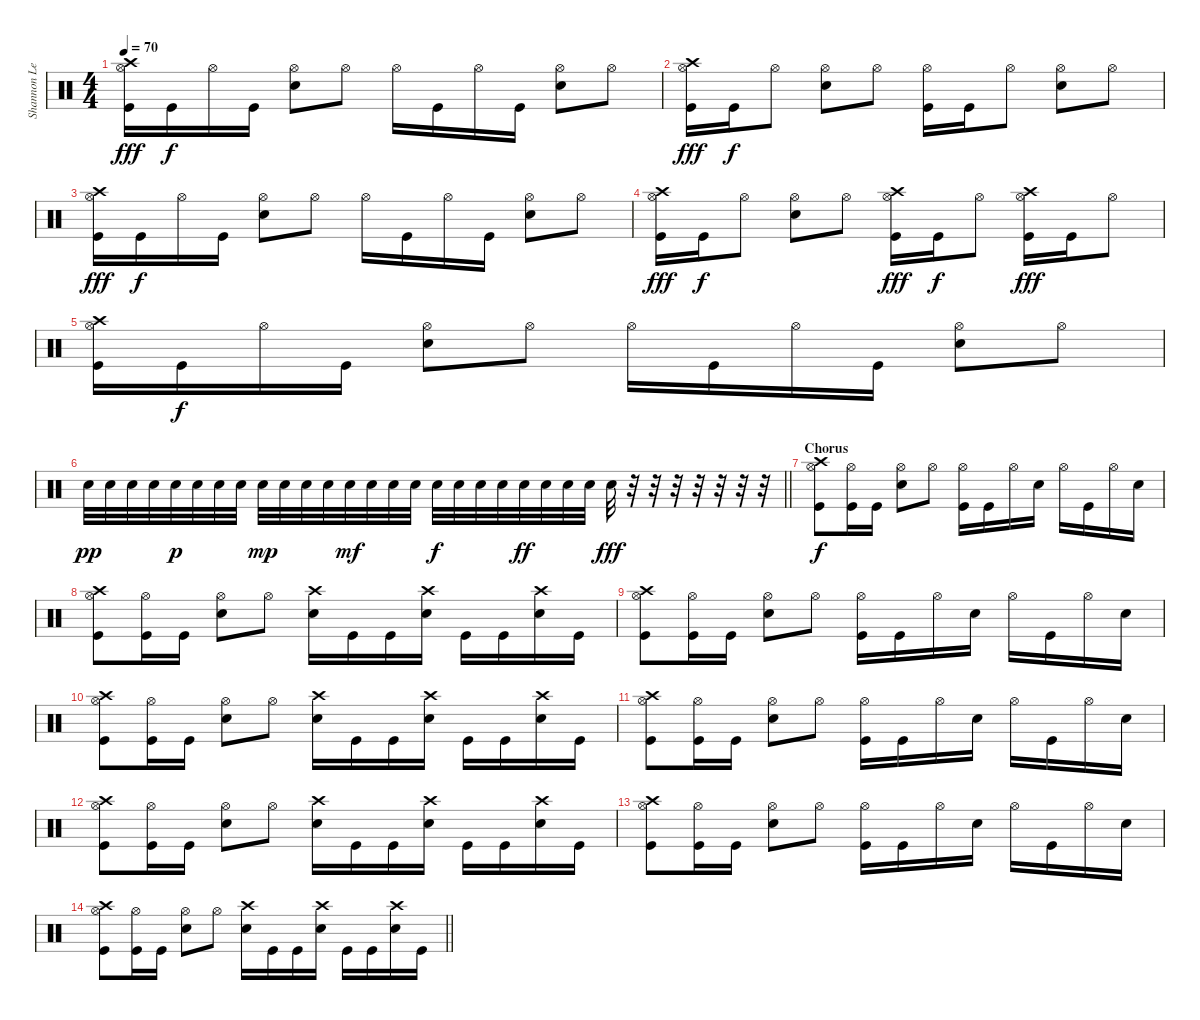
\track ("Shannon Leto (Drums)" "Shannon Le") {instrument percussion}
\staff {score}
\articulation defaults
\ts (4 4)
\tempo 70
\clef neutral
\ks c
("Crash high (hit)" "Hi-Hat (open)" "Kick (hit)").16{dy fff} "Kick (hit)".16{dy f} "Hi-Hat (open)".16 "Kick (hit)".16 ("Hi-Hat (open)" "Snare (hit) 2").8 "Hi-Hat (open)".8 "Hi-Hat (open)".16 "Kick (hit)".16 "Hi-Hat (open)".16 "Kick (hit)".16 ("Hi-Hat (open)" "Snare (hit) 2").8 "Hi-Hat (open)".8 |
("Crash high (hit)" "Hi-Hat (open)" "Kick (hit)").16{dy fff} "Kick (hit)".16{dy f} "Hi-Hat (open)".8 ("Hi-Hat (open)" "Snare (hit) 2").8 "Hi-Hat (open)".8 ("Hi-Hat (open)" "Kick (hit)").16 "Kick (hit)".16 "Hi-Hat (open)".8 ("Hi-Hat (open)" "Snare (hit) 2").8 "Hi-Hat (open)".8 |
("Crash high (hit)" "Hi-Hat (open)" "Kick (hit)").16{dy fff} "Kick (hit)".16{dy f} "Hi-Hat (open)".16 "Kick (hit)".16 ("Hi-Hat (open)" "Snare (hit) 2").8 "Hi-Hat (open)".8 "Hi-Hat (open)".16 "Kick (hit)".16 "Hi-Hat (open)".16 "Kick (hit)".16 ("Hi-Hat (open)" "Snare (hit) 2").8 "Hi-Hat (open)".8 |
("Crash high (hit)" "Hi-Hat (open)" "Kick (hit)").16{dy fff} "Kick (hit)".16{dy f} "Hi-Hat (open)".8 ("Hi-Hat (open)" "Snare (hit) 2").8 "Hi-Hat (open)".8 ("Crash high (hit)" "Hi-Hat (open)" "Kick (hit)").16{dy fff} "Kick (hit)".16{dy f} "Hi-Hat (open)".8 ("Crash high (hit)" "Hi-Hat (open)" "Kick (hit)").16{dy fff} "Kick (hit)".16 "Hi-Hat (open)".8 |
("Crash high (hit)" "Hi-Hat (open)" "Kick (hit)").16 "Kick (hit)".16{dy f} "Hi-Hat (open)".16 "Kick (hit)".16 ("Hi-Hat (open)" "Snare (hit) 2").8 "Hi-Hat (open)".8 "Hi-Hat (open)".16 "Kick (hit)".16 "Hi-Hat (open)".16 "Kick (hit)".16 ("Hi-Hat (open)" "Snare (hit) 2").8 "Hi-Hat (open)".8 |
\barLineRight lightlight "Snare (hit) 2".32{dy pp} "Snare (hit) 2".32 "Snare (hit) 2".32 "Snare (hit) 2".32 "Snare (hit) 2".32{dy p} "Snare (hit) 2".32 "Snare (hit) 2".32 "Snare (hit) 2".32 "Snare (hit) 2".32{dy mp} "Snare (hit) 2".32 "Snare (hit) 2".32 "Snare (hit) 2".32 "Snare (hit) 2".32{dy mf} "Snare (hit) 2".32 "Snare (hit) 2".32 "Snare (hit) 2".32 "Snare (hit) 2".32{dy f} "Snare (hit) 2".32 "Snare (hit) 2".32 "Snare (hit) 2".32 "Snare (hit) 2".32{dy ff} "Snare (hit) 2".32 "Snare (hit) 2".32 "Snare (hit) 2".32 "Snare (hit) 2".32{dy fff}
r.32 r.32 r.32 r.32 r.32 r.32 r.32 |
\section ("" "Chorus")
("Crash high (hit)" "Hi-Hat (open)" "Kick (hit)").8{dy f} ("Hi-Hat (open)" "Kick (hit)").16 "Kick (hit)".16 ("Hi-Hat (open)" "Snare (hit) 2").8 "Hi-Hat (open)".8 ("Hi-Hat (open)" "Kick (hit)").16 "Kick (hit)".16 "Hi-Hat (open)".16 "Snare (hit) 2".16 "Hi-Hat (open)".16 "Kick (hit)".16 "Hi-Hat (open)".16 "Snare (hit) 2".16 |
("Crash high (hit)" "Hi-Hat (open)" "Kick (hit)").8 ("Hi-Hat (open)" "Kick (hit)").16 "Kick (hit)".16 ("Hi-Hat (open)" "Snare (hit) 2").8 "Hi-Hat (open)".8 ("Crash high (hit)" "Snare (hit) 2").16 "Kick (hit)".16 "Kick (hit)".16 ("Crash high (hit)" "Snare (hit) 2").16 "Kick (hit)".16 "Kick (hit)".16 ("Crash high (hit)" "Snare (hit) 2").16 "Kick (hit)".16 |
("Crash high (hit)" "Hi-Hat (open)" "Kick (hit)").8 ("Hi-Hat (open)" "Kick (hit)").16 "Kick (hit)".16 ("Hi-Hat (open)" "Snare (hit) 2").8 "Hi-Hat (open)".8 ("Hi-Hat (open)" "Kick (hit)").16 "Kick (hit)".16 "Hi-Hat (open)".16 "Snare (hit) 2".16 "Hi-Hat (open)".16 "Kick (hit)".16 "Hi-Hat (open)".16 "Snare (hit) 2".16 |
("Crash high (hit)" "Hi-Hat (open)" "Kick (hit)").8 ("Hi-Hat (open)" "Kick (hit)").16 "Kick (hit)".16 ("Hi-Hat (open)" "Snare (hit) 2").8 "Hi-Hat (open)".8 ("Crash high (hit)" "Snare (hit) 2").16 "Kick (hit)".16 "Kick (hit)".16 ("Crash high (hit)" "Snare (hit) 2").16 "Kick (hit)".16 "Kick (hit)".16 ("Crash high (hit)" "Snare (hit) 2").16 "Kick (hit)".16 |
("Crash high (hit)" "Hi-Hat (open)" "Kick (hit)").8 ("Hi-Hat (open)" "Kick (hit)").16 "Kick (hit)".16 ("Hi-Hat (open)" "Snare (hit) 2").8 "Hi-Hat (open)".8 ("Hi-Hat (open)" "Kick (hit)").16 "Kick (hit)".16 "Hi-Hat (open)".16 "Snare (hit) 2".16 "Hi-Hat (open)".16 "Kick (hit)".16 "Hi-Hat (open)".16 "Snare (hit) 2".16 |
("Crash high (hit)" "Hi-Hat (open)" "Kick (hit)").8 ("Hi-Hat (open)" "Kick (hit)").16 "Kick (hit)".16 ("Hi-Hat (open)" "Snare (hit) 2").8 "Hi-Hat (open)".8 ("Crash high (hit)" "Snare (hit) 2").16 "Kick (hit)".16 "Kick (hit)".16 ("Crash high (hit)" "Snare (hit) 2").16 "Kick (hit)".16 "Kick (hit)".16 ("Crash high (hit)" "Snare (hit) 2").16 "Kick (hit)".16 |
("Crash high (hit)" "Hi-Hat (open)" "Kick (hit)").8 ("Hi-Hat (open)" "Kick (hit)").16 "Kick (hit)".16 ("Hi-Hat (open)" "Snare (hit) 2").8 "Hi-Hat (open)".8 ("Hi-Hat (open)" "Kick (hit)").16 "Kick (hit)".16 "Hi-Hat (open)".16 "Snare (hit) 2".16 "Hi-Hat (open)".16 "Kick (hit)".16 "Hi-Hat (open)".16 "Snare (hit) 2".16 |
\barLineRight lightlight
("Crash high (hit)" "Hi-Hat (open)" "Kick (hit)").8 ("Hi-Hat (open)" "Kick (hit)").16 "Kick (hit)".16 ("Hi-Hat (open)" "Snare (hit) 2").8 "Hi-Hat (open)".8 ("Crash high (hit)" "Snare (hit) 2").16 "Kick (hit)".16 "Kick (hit)".16 ("Crash high (hit)" "Snare (hit) 2").16 "Kick (hit)".16 "Kick (hit)".16 ("Crash high (hit)" "Snare (hit) 2").16 "Kick (hit)".16
